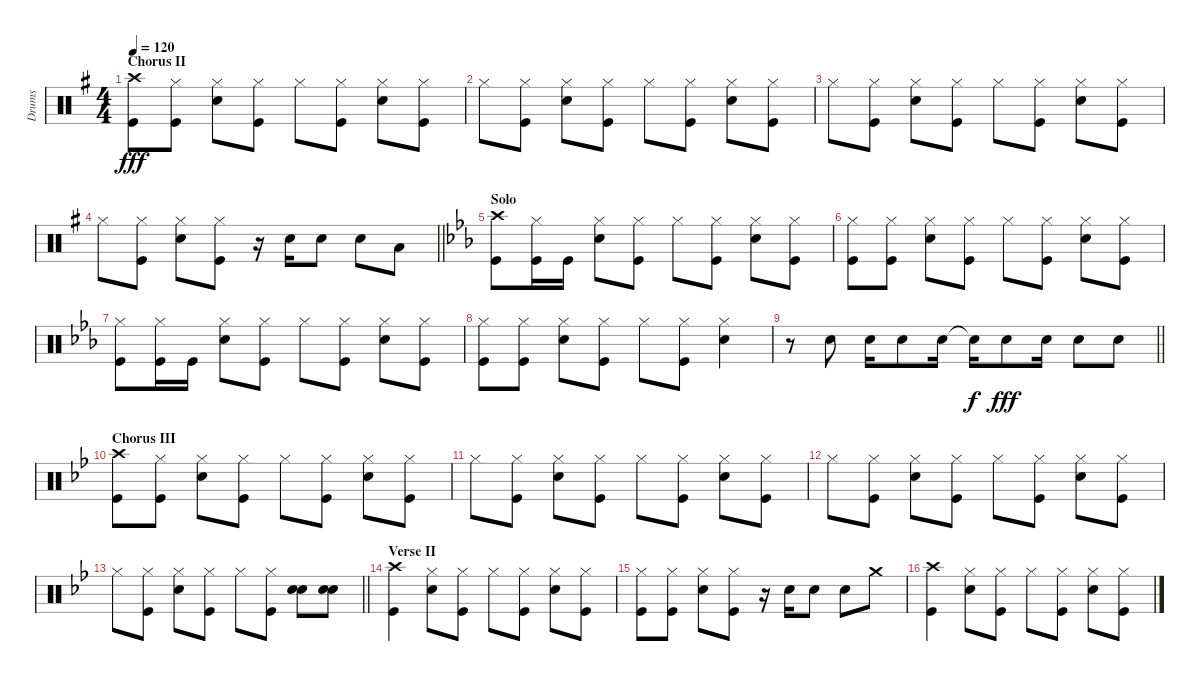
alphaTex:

\track ("Drums" "Drums") {instrument percussion}
\staff {score}
\articulation defaults
\ts (4 4)
\section ("" "Chorus II")
\tempo 120
\clef neutral
\ks g
("Crash high (hit)" "Kick (hit)").8{dy fff} ("Hi-Hat (closed)" "Kick (hit)").8 ("Hi-Hat (closed)" "Snare (hit) 2").8 ("Hi-Hat (closed)" "Kick (hit)").8 "Hi-Hat (closed)".8 ("Hi-Hat (closed)" "Kick (hit)").8 ("Hi-Hat (closed)" "Snare (hit) 2").8 ("Hi-Hat (closed)" "Kick (hit)").8 |
"Hi-Hat (closed)".8 ("Hi-Hat (closed)" "Kick (hit)").8 ("Hi-Hat (closed)" "Snare (hit) 2").8 ("Hi-Hat (closed)" "Kick (hit)").8 "Hi-Hat (closed)".8 ("Hi-Hat (closed)" "Kick (hit)").8 ("Hi-Hat (closed)" "Snare (hit) 2").8 ("Hi-Hat (closed)" "Kick (hit)").8 |
"Hi-Hat (closed)".8 ("Hi-Hat (closed)" "Kick (hit)").8 ("Hi-Hat (closed)" "Snare (hit) 2").8 ("Hi-Hat (closed)" "Kick (hit)").8 "Hi-Hat (closed)".8 ("Hi-Hat (closed)" "Kick (hit)").8 ("Hi-Hat (closed)" "Snare (hit) 2").8 ("Hi-Hat (closed)" "Kick (hit)").8 |
\barLineRight lightlight "Hi-Hat (closed)".8
("Hi-Hat (closed)" "Kick (hit)").8 ("Hi-Hat (closed)" "Snare (hit) 2").8 ("Hi-Hat (closed)" "Kick (hit)").8 r.16 "Snare (hit) 2".16 "Snare (hit) 2".8 "Snare (hit) 2".8 "Low Floor Tom (hit)".8 |
\section ("" "Solo")
\ks eb
("Crash high (hit)" "Kick (hit)").8 ("Hi-Hat (closed)" "Kick (hit)").16 "Kick (hit)".16 ("Hi-Hat (closed)" "Snare (hit) 2").8 ("Hi-Hat (closed)" "Kick (hit)").8 "Hi-Hat (closed)".8 ("Hi-Hat (closed)" "Kick (hit)").8 ("Hi-Hat (closed)" "Snare (hit) 2").8 ("Hi-Hat (closed)" "Kick (hit)").8 |
("Hi-Hat (closed)" "Kick (hit)").8 ("Hi-Hat (closed)" "Kick (hit)").8 ("Hi-Hat (closed)" "Snare (hit) 2").8 ("Hi-Hat (closed)" "Kick (hit)").8 "Hi-Hat (closed)".8 ("Hi-Hat (closed)" "Kick (hit)").8 ("Hi-Hat (closed)" "Snare (hit) 2").8 ("Hi-Hat (closed)" "Kick (hit)").8 |
("Hi-Hat (closed)" "Kick (hit)").8 ("Hi-Hat (closed)" "Kick (hit)").16 "Kick (hit)".16 ("Hi-Hat (closed)" "Snare (hit) 2").8 ("Hi-Hat (closed)" "Kick (hit)").8 "Hi-Hat (closed)".8 ("Hi-Hat (closed)" "Kick (hit)").8 ("Hi-Hat (closed)" "Snare (hit) 2").8 ("Hi-Hat (closed)" "Kick (hit)").8 |
("Hi-Hat (closed)" "Kick (hit)").8 ("Hi-Hat (closed)" "Kick (hit)").8 ("Hi-Hat (closed)" "Snare (hit) 2").8 ("Hi-Hat (closed)" "Kick (hit)").8 "Hi-Hat (closed)".8 ("Hi-Hat (closed)" "Kick (hit)").8 ("Hi-Hat (closed)" "Snare (hit) 2").4 |
\barLineRight lightlight
r.8 "Snare (hit) 2".8 "Snare (hit) 2".16 "Snare (hit) 2".8 "Snare (hit) 2".16 "Snare (hit)"{t}.16{dy f} "Snare (hit) 2".8{dy fff} "Snare (hit) 2".16 "Snare (hit) 2".8 "Snare (hit) 2".8 |
\section ("" "Chorus III")
\ks bb
("Crash high (hit)" "Kick (hit)").8 ("Hi-Hat (closed)" "Kick (hit)").8 ("Hi-Hat (closed)" "Snare (hit) 2").8 ("Hi-Hat (closed)" "Kick (hit)").8 "Hi-Hat (closed)".8 ("Hi-Hat (closed)" "Kick (hit)").8 ("Hi-Hat (closed)" "Snare (hit) 2").8 ("Hi-Hat (closed)" "Kick (hit)").8 |
"Hi-Hat (closed)".8 ("Hi-Hat (closed)" "Kick (hit)").8 ("Hi-Hat (closed)" "Snare (hit) 2").8 ("Hi-Hat (closed)" "Kick (hit)").8 "Hi-Hat (closed)".8 ("Hi-Hat (closed)" "Kick (hit)").8 ("Hi-Hat (closed)" "Snare (hit) 2").8 ("Hi-Hat (closed)" "Kick (hit)").8 |
"Hi-Hat (closed)".8 ("Hi-Hat (closed)" "Kick (hit)").8 ("Hi-Hat (closed)" "Snare (hit) 2").8 ("Hi-Hat (closed)" "Kick (hit)").8 "Hi-Hat (closed)".8 ("Hi-Hat (closed)" "Kick (hit)").8 ("Hi-Hat (closed)" "Snare (hit) 2").8 ("Hi-Hat (closed)" "Kick (hit)").8 |
\barLineRight lightlight "Hi-Hat (closed)".8
("Hi-Hat (closed)" "Kick (hit)").8 ("Hi-Hat (closed)" "Snare (hit) 2").8 ("Hi-Hat (closed)" "Kick (hit)").8 "Hi-Hat (closed)".8 ("Hi-Hat (closed)" "Kick (hit)").8 ("Snare (hit) 2" "Snare (hit) 2").8 ("Snare (hit) 2" "Snare (hit) 2").8 |
\section ("" "Verse II")
("Crash high (hit)" "Kick (hit)").4 ("Hi-Hat (closed)" "Snare (hit) 2").8 ("Hi-Hat (closed)" "Kick (hit)").8 "Hi-Hat (closed)".8 ("Hi-Hat (closed)" "Kick (hit)").8 ("Hi-Hat (closed)" "Snare (hit) 2").8 ("Hi-Hat (closed)" "Kick (hit)").8 |
("Hi-Hat (closed)" "Kick (hit)").8 ("Hi-Hat (closed)" "Kick (hit)").8 ("Hi-Hat (closed)" "Snare (hit) 2").8 ("Hi-Hat (closed)" "Kick (hit)").8 r.16 "Snare (hit) 2".16 "Snare (hit) 2".8 "Snare (hit) 2".8 "Crash medium (hit)".8 |
("Crash high (hit)" "Kick (hit)").4 ("Hi-Hat (closed)" "Snare (hit) 2").8 ("Hi-Hat (closed)" "Kick (hit)").8 "Hi-Hat (closed)".8 ("Hi-Hat (closed)" "Kick (hit)").8 ("Hi-Hat (closed)" "Snare (hit) 2").8 ("Hi-Hat (closed)" "Kick (hit)").8
